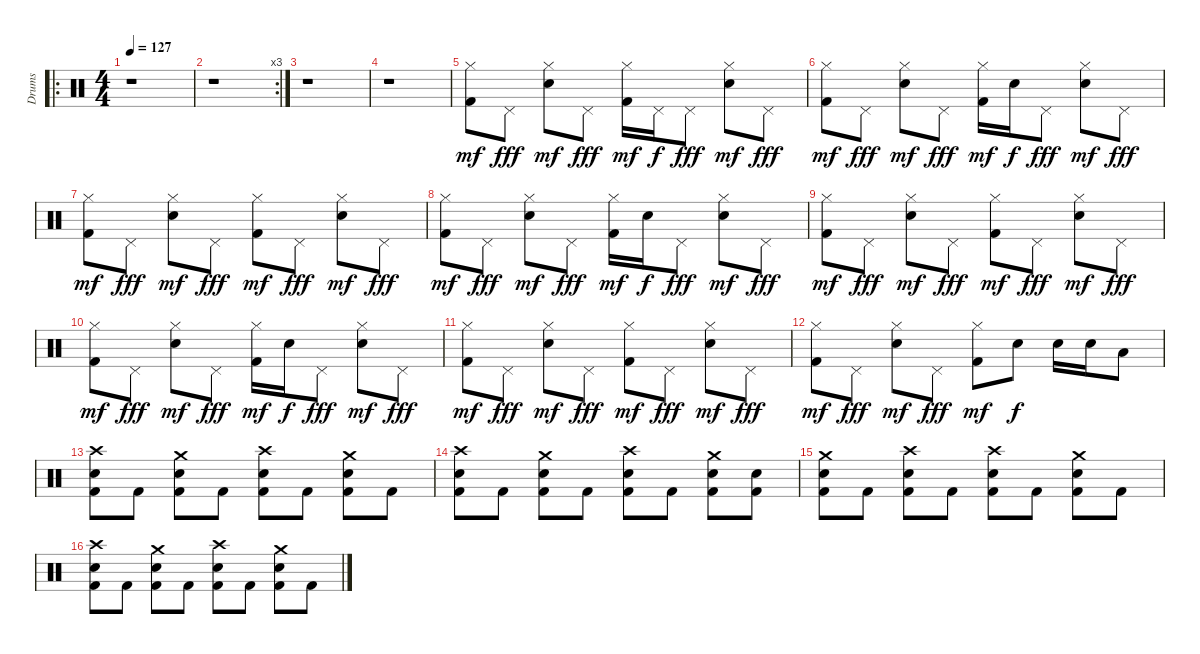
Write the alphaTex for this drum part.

\track ("Drums" "Drums") {instrument percussion}
\staff {score}
\articulation defaults
\ro
\ts (4 4)
\tempo 127
\clef neutral
\ks c
r.1{dy mf} |
\rc 3
r.1 |
r.1 |
r.1 |
("Kick (hit) 2" "Hi-Hat (closed)").8 "Pedal Hi-Hat (hit)".8{dy fff} ("Hi-Hat (closed)" "Electric Snare (hit)").8{dy mf} "Pedal Hi-Hat (hit)".8{dy fff} ("Kick (hit) 2" "Hi-Hat (closed)").16{dy mf} "Pedal Hi-Hat (hit)".16{dy f} "Pedal Hi-Hat (hit)".8{dy fff} ("Hi-Hat (closed)" "Electric Snare (hit)").8{dy mf} "Pedal Hi-Hat (hit)".8{dy fff} |
("Kick (hit) 2" "Hi-Hat (closed)").8{dy mf} "Pedal Hi-Hat (hit)".8{dy fff} ("Hi-Hat (closed)" "Electric Snare (hit)").8{dy mf} "Pedal Hi-Hat (hit)".8{dy fff} ("Kick (hit) 2" "Hi-Hat (closed)").16{dy mf} "Electric Snare (hit)".16{dy f} "Pedal Hi-Hat (hit)".8{dy fff} ("Hi-Hat (closed)" "Electric Snare (hit)").8{dy mf} "Pedal Hi-Hat (hit)".8{dy fff} |
("Kick (hit) 2" "Hi-Hat (closed)").8{dy mf} "Pedal Hi-Hat (hit)".8{dy fff} ("Hi-Hat (closed)" "Electric Snare (hit)").8{dy mf} "Pedal Hi-Hat (hit)".8{dy fff} ("Kick (hit) 2" "Hi-Hat (closed)").8{dy mf} "Pedal Hi-Hat (hit)".8{dy fff} ("Hi-Hat (closed)" "Electric Snare (hit)").8{dy mf} "Pedal Hi-Hat (hit)".8{dy fff} |
("Kick (hit) 2" "Hi-Hat (closed)").8{dy mf} "Pedal Hi-Hat (hit)".8{dy fff} ("Hi-Hat (closed)" "Electric Snare (hit)").8{dy mf} "Pedal Hi-Hat (hit)".8{dy fff} ("Kick (hit) 2" "Hi-Hat (closed)").16{dy mf} "Electric Snare (hit)".16{dy f} "Pedal Hi-Hat (hit)".8{dy fff} ("Hi-Hat (closed)" "Electric Snare (hit)").8{dy mf} "Pedal Hi-Hat (hit)".8{dy fff} |
("Kick (hit) 2" "Hi-Hat (closed)").8{dy mf} "Pedal Hi-Hat (hit)".8{dy fff} ("Hi-Hat (closed)" "Electric Snare (hit)").8{dy mf} "Pedal Hi-Hat (hit)".8{dy fff} ("Kick (hit) 2" "Hi-Hat (closed)").8{dy mf} "Pedal Hi-Hat (hit)".8{dy fff} ("Hi-Hat (closed)" "Electric Snare (hit)").8{dy mf} "Pedal Hi-Hat (hit)".8{dy fff} |
("Kick (hit) 2" "Hi-Hat (closed)").8{dy mf} "Pedal Hi-Hat (hit)".8{dy fff} ("Hi-Hat (closed)" "Electric Snare (hit)").8{dy mf} "Pedal Hi-Hat (hit)".8{dy fff} ("Kick (hit) 2" "Hi-Hat (closed)").16{dy mf} "Electric Snare (hit)".16{dy f} "Pedal Hi-Hat (hit)".8{dy fff} ("Hi-Hat (closed)" "Electric Snare (hit)").8{dy mf} "Pedal Hi-Hat (hit)".8{dy fff} |
("Kick (hit) 2" "Hi-Hat (closed)").8{dy mf} "Pedal Hi-Hat (hit)".8{dy fff} ("Hi-Hat (closed)" "Electric Snare (hit)").8{dy mf} "Pedal Hi-Hat (hit)".8{dy fff} ("Kick (hit) 2" "Hi-Hat (closed)").8{dy mf} "Pedal Hi-Hat (hit)".8{dy fff} ("Hi-Hat (closed)" "Electric Snare (hit)").8{dy mf} "Pedal Hi-Hat (hit)".8{dy fff} |
("Kick (hit) 2" "Hi-Hat (closed)").8{dy mf} "Pedal Hi-Hat (hit)".8{dy fff} ("Hi-Hat (closed)" "Electric Snare (hit)").8{dy mf} "Pedal Hi-Hat (hit)".8{dy fff} ("Kick (hit) 2" "Hi-Hat (closed)").8{dy mf} "Electric Snare (hit)".8{dy f} "Electric Snare (hit)".16 "Electric Snare (hit)".16 "Low Floor Tom (hit)".8 |
("Kick (hit) 2" "Crash high (hit)" "Electric Snare (hit)").8 "Kick (hit) 2".8 ("Kick (hit) 2" "Crash medium (hit)" "Electric Snare (hit)").8 "Kick (hit) 2".8 ("Kick (hit) 2" "Crash high (hit)" "Electric Snare (hit)").8 "Kick (hit) 2".8 ("Kick (hit) 2" "Crash medium (hit)" "Electric Snare (hit)").8 "Kick (hit) 2".8 |
("Kick (hit) 2" "Crash high (hit)" "Electric Snare (hit)").8 "Kick (hit) 2".8 ("Kick (hit) 2" "Crash medium (hit)" "Electric Snare (hit)").8 "Kick (hit) 2".8 ("Kick (hit) 2" "Crash high (hit)" "Electric Snare (hit)").8 "Kick (hit) 2".8 ("Kick (hit) 2" "Crash medium (hit)" "Electric Snare (hit)").8 ("Kick (hit) 2" "Electric Snare (hit)").8 |
("Kick (hit) 2" "Crash medium (hit)" "Electric Snare (hit)").8 "Kick (hit) 2".8 ("Kick (hit) 2" "Crash high (hit)" "Electric Snare (hit)").8 "Kick (hit) 2".8 ("Kick (hit) 2" "Crash high (hit)" "Electric Snare (hit)").8 "Kick (hit) 2".8 ("Kick (hit) 2" "Crash medium (hit)" "Electric Snare (hit)").8 "Kick (hit) 2".8 |
("Kick (hit) 2" "Crash high (hit)" "Electric Snare (hit)").8 "Kick (hit) 2".8 ("Kick (hit) 2" "Crash medium (hit)" "Electric Snare (hit)").8 "Kick (hit) 2".8 ("Kick (hit) 2" "Crash high (hit)" "Electric Snare (hit)").8 "Kick (hit) 2".8 ("Kick (hit) 2" "Crash medium (hit)" "Electric Snare (hit)").8 "Kick (hit) 2".8
